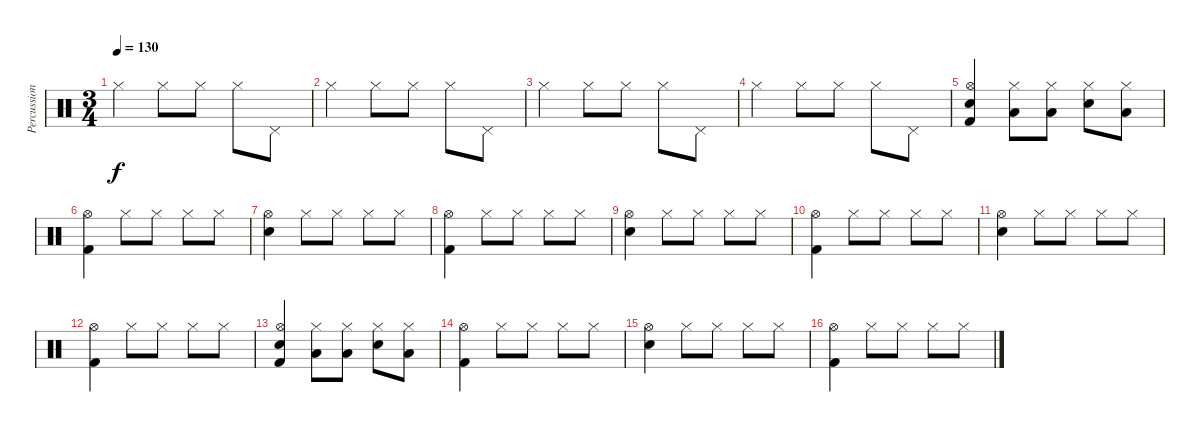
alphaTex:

\track ("Percussion" "Percussion") {instrument percussion}
\staff {score}
\articulation defaults
\ts (3 4)
\tempo 130
\clef neutral
\ks c "Hi-Hat (closed)".4{dy f} "Hi-Hat (closed)".8 "Hi-Hat (closed)".8 "Hi-Hat (closed)".8 "Pedal Hi-Hat (hit)".8
|
"Hi-Hat (closed)".4 "Hi-Hat (closed)".8 "Hi-Hat (closed)".8 "Hi-Hat (closed)".8 "Pedal Hi-Hat (hit)".8 |
"Hi-Hat (closed)".4 "Hi-Hat (closed)".8 "Hi-Hat (closed)".8 "Hi-Hat (closed)".8 "Pedal Hi-Hat (hit)".8 |
"Hi-Hat (closed)".4 "Hi-Hat (closed)".8 "Hi-Hat (closed)".8 "Hi-Hat (closed)".8 "Pedal Hi-Hat (hit)".8 |
("Snare (hit) 2" "Hi-Hat (open)" "Kick (hit) 2").4 ("Low Tom (hit)" "Hi-Hat (closed)").8 ("Low Tom (hit)" "Hi-Hat (closed)").8 ("Snare (hit) 2" "Hi-Hat (closed)").8 ("Low Tom (hit)" "Hi-Hat (closed)").8 |
("Hi-Hat (open)" "Kick (hit) 2").4 "Hi-Hat (closed)".8 "Hi-Hat (closed)".8 "Hi-Hat (closed)".8 "Hi-Hat (closed)".8 |
("Hi-Hat (open)" "Snare (hit) 2").4 "Hi-Hat (closed)".8 "Hi-Hat (closed)".8 "Hi-Hat (closed)".8 "Hi-Hat (closed)".8 |
("Hi-Hat (open)" "Kick (hit) 2").4 "Hi-Hat (closed)".8 "Hi-Hat (closed)".8 "Hi-Hat (closed)".8 "Hi-Hat (closed)".8 |
("Hi-Hat (open)" "Snare (hit) 2").4 "Hi-Hat (closed)".8 "Hi-Hat (closed)".8 "Hi-Hat (closed)".8 "Hi-Hat (closed)".8 |
("Hi-Hat (open)" "Kick (hit) 2").4 "Hi-Hat (closed)".8 "Hi-Hat (closed)".8 "Hi-Hat (closed)".8 "Hi-Hat (closed)".8 |
("Hi-Hat (open)" "Snare (hit) 2").4 "Hi-Hat (closed)".8 "Hi-Hat (closed)".8 "Hi-Hat (closed)".8 "Hi-Hat (closed)".8 |
("Hi-Hat (open)" "Kick (hit) 2").4 "Hi-Hat (closed)".8 "Hi-Hat (closed)".8 "Hi-Hat (closed)".8 "Hi-Hat (closed)".8 |
("Snare (hit) 2" "Hi-Hat (open)" "Kick (hit) 2").4 ("Low Tom (hit)" "Hi-Hat (closed)").8 ("Low Tom (hit)" "Hi-Hat (closed)").8 ("Snare (hit) 2" "Hi-Hat (closed)").8 ("Low Tom (hit)" "Hi-Hat (closed)").8 |
("Hi-Hat (open)" "Kick (hit) 2").4 "Hi-Hat (closed)".8 "Hi-Hat (closed)".8 "Hi-Hat (closed)".8 "Hi-Hat (closed)".8 |
("Hi-Hat (open)" "Snare (hit) 2").4 "Hi-Hat (closed)".8 "Hi-Hat (closed)".8 "Hi-Hat (closed)".8 "Hi-Hat (closed)".8 |
("Hi-Hat (open)" "Kick (hit) 2").4 "Hi-Hat (closed)".8 "Hi-Hat (closed)".8 "Hi-Hat (closed)".8 "Hi-Hat (closed)".8
